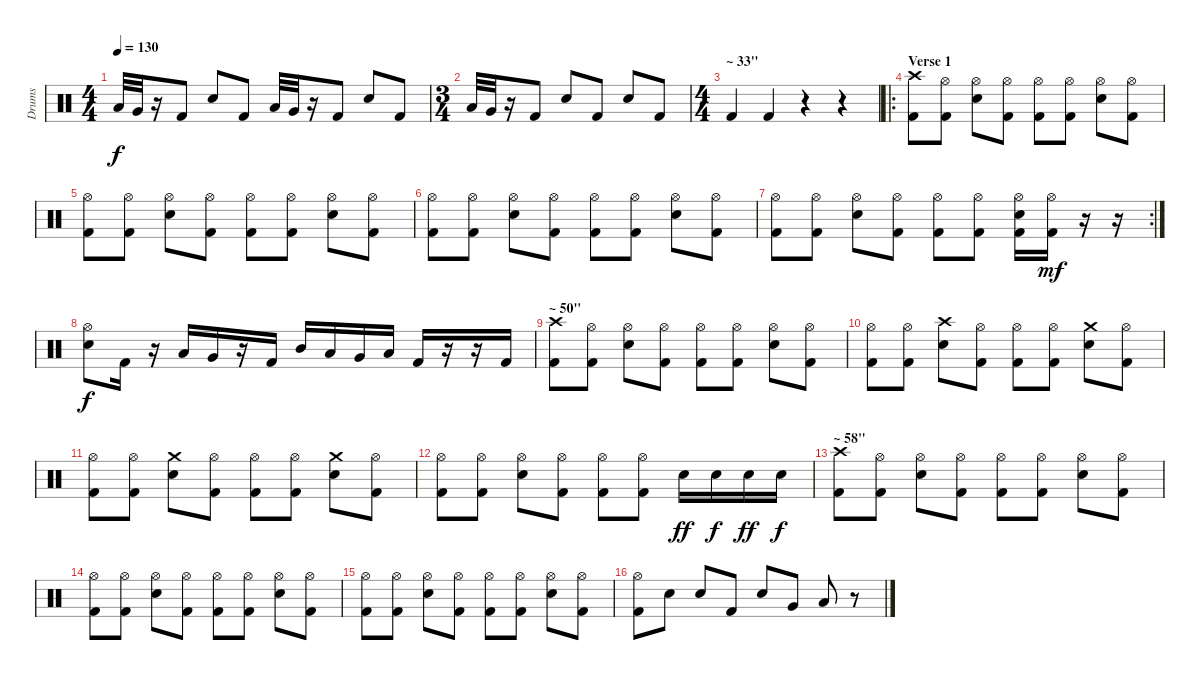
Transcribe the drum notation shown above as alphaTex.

\track ("Drums" "Drums") {instrument percussion}
\staff {score}
\articulation defaults
\ts (4 4)
\tempo 130
\clef neutral
\ks c "Low Tom (hit)".32{dy f} "Very Low Tom (hit)".32
r.16 "Kick (hit) 2".8 "Electric Snare (hit)".8 "Kick (hit) 2".8 "Low Tom (hit)".32 "Very Low Tom (hit)".32 r.16 "Kick (hit) 2".8 "Electric Snare (hit)".8 "Kick (hit) 2".8 |
\ts (3 4)
"Low Tom (hit)".32 "Very Low Tom (hit)".32 r.16 "Kick (hit) 2".8 "Electric Snare (hit)".8 "Kick (hit) 2".8 "Electric Snare (hit)".8 "Kick (hit) 2".8 |
\ts (4 4)
\section ("" "~ 33\"")
"Kick (hit) 2".4 "Kick (hit) 2".4 r.4 r.4 |
\ro
\section ("" "Verse 1")
("Crash high (hit)" "Kick (hit) 2").8 ("Hi-Hat (open)" "Kick (hit) 2").8 ("Hi-Hat (open)" "Electric Snare (hit)").8 ("Hi-Hat (open)" "Kick (hit) 2").8 ("Hi-Hat (open)" "Kick (hit) 2").8 ("Hi-Hat (open)" "Kick (hit) 2").8 ("Hi-Hat (open)" "Electric Snare (hit)").8 ("Hi-Hat (open)" "Kick (hit) 2").8 |
("Hi-Hat (open)" "Kick (hit) 2").8 ("Hi-Hat (open)" "Kick (hit) 2").8 ("Hi-Hat (open)" "Electric Snare (hit)").8 ("Hi-Hat (open)" "Kick (hit) 2").8 ("Hi-Hat (open)" "Kick (hit) 2").8 ("Hi-Hat (open)" "Kick (hit) 2").8 ("Hi-Hat (open)" "Electric Snare (hit)").8 ("Hi-Hat (open)" "Kick (hit) 2").8 |
("Hi-Hat (open)" "Kick (hit) 2").8 ("Hi-Hat (open)" "Kick (hit) 2").8 ("Hi-Hat (open)" "Electric Snare (hit)").8 ("Hi-Hat (open)" "Kick (hit) 2").8 ("Hi-Hat (open)" "Kick (hit) 2").8 ("Hi-Hat (open)" "Kick (hit) 2").8 ("Hi-Hat (open)" "Electric Snare (hit)").8 ("Hi-Hat (open)" "Kick (hit) 2").8 |
\rc 2
("Hi-Hat (open)" "Kick (hit) 2").8 ("Hi-Hat (open)" "Kick (hit) 2").8 ("Hi-Hat (open)" "Electric Snare (hit)").8 ("Hi-Hat (open)" "Kick (hit) 2").8 ("Hi-Hat (open)" "Kick (hit) 2").8 ("Hi-Hat (open)" "Kick (hit) 2").8 ("Hi-Hat (open)" "Electric Snare (hit)" "Kick (hit) 2").16 ("Kick (hit) 2" "Hi-Hat (open)").16{dy mf} r.16 r.16 |
("Electric Snare (hit)" "Hi-Hat (open)").8{dy f} "Kick (hit) 2".16 r.16 "Low Tom (hit)".16 "Very Low Tom (hit)".16 r.16 "Kick (hit) 2".16 "Mid Tom (hit)".16 "Low Tom (hit)".16 "Very Low Tom (hit)".16 "Low Floor Tom (hit)".16 "Kick (hit) 2".16 r.16 r.16 "Kick (hit) 2".16 |
\section ("" "~ 50\"")
("Crash high (hit)" "Kick (hit) 2").8 ("Hi-Hat (open)" "Kick (hit) 2").8 ("Hi-Hat (open)" "Electric Snare (hit)").8 ("Hi-Hat (open)" "Kick (hit) 2").8 ("Hi-Hat (open)" "Kick (hit) 2").8 ("Hi-Hat (open)" "Kick (hit) 2").8 ("Hi-Hat (open)" "Electric Snare (hit)").8 ("Hi-Hat (open)" "Kick (hit) 2").8 |
("Hi-Hat (open)" "Kick (hit) 2").8 ("Hi-Hat (open)" "Kick (hit) 2").8 ("Crash high (hit)" "Electric Snare (hit)").8 ("Hi-Hat (open)" "Kick (hit) 2").8 ("Hi-Hat (open)" "Kick (hit) 2").8 ("Hi-Hat (open)" "Kick (hit) 2").8 ("Crash medium (hit)" "Electric Snare (hit)").8 ("Hi-Hat (open)" "Kick (hit) 2").8 |
("Hi-Hat (open)" "Kick (hit) 2").8 ("Hi-Hat (open)" "Kick (hit) 2").8 ("Crash medium (hit)" "Electric Snare (hit)").8 ("Hi-Hat (open)" "Kick (hit) 2").8 ("Hi-Hat (open)" "Kick (hit) 2").8 ("Hi-Hat (open)" "Kick (hit) 2").8 ("Crash medium (hit)" "Electric Snare (hit)").8 ("Hi-Hat (open)" "Kick (hit) 2").8 |
("Hi-Hat (open)" "Kick (hit) 2").8 ("Hi-Hat (open)" "Kick (hit) 2").8 ("Hi-Hat (open)" "Electric Snare (hit)").8 ("Hi-Hat (open)" "Kick (hit) 2").8 ("Hi-Hat (open)" "Kick (hit) 2").8 ("Hi-Hat (open)" "Kick (hit) 2").8 "Electric Snare (hit)".16{dy ff} "Electric Snare (hit)".16{dy f} "Electric Snare (hit)".16{dy ff} "Electric Snare (hit)".16{dy f} |
\section ("" "~ 58\"")
("Kick (hit) 2" "Crash high (hit)").8 ("Hi-Hat (open)" "Kick (hit) 2").8 ("Hi-Hat (open)" "Electric Snare (hit)").8 ("Hi-Hat (open)" "Kick (hit) 2").8 ("Hi-Hat (open)" "Kick (hit) 2").8 ("Hi-Hat (open)" "Kick (hit) 2").8 ("Hi-Hat (open)" "Electric Snare (hit)").8 ("Hi-Hat (open)" "Kick (hit) 2").8 |
("Hi-Hat (open)" "Kick (hit) 2").8 ("Hi-Hat (open)" "Kick (hit) 2").8 ("Hi-Hat (open)" "Electric Snare (hit)").8 ("Hi-Hat (open)" "Kick (hit) 2").8 ("Hi-Hat (open)" "Kick (hit) 2").8 ("Hi-Hat (open)" "Kick (hit) 2").8 ("Hi-Hat (open)" "Electric Snare (hit)").8 ("Hi-Hat (open)" "Kick (hit) 2").8 |
("Hi-Hat (open)" "Kick (hit) 2").8 ("Hi-Hat (open)" "Kick (hit) 2").8 ("Hi-Hat (open)" "Electric Snare (hit)").8 ("Hi-Hat (open)" "Kick (hit) 2").8 ("Hi-Hat (open)" "Kick (hit) 2").8 ("Hi-Hat (open)" "Kick (hit) 2").8 ("Hi-Hat (open)" "Electric Snare (hit)").8 ("Hi-Hat (open)" "Kick (hit) 2").8 |
("Hi-Hat (open)" "Kick (hit) 2").8 "Electric Snare (hit)".8 "Electric Snare (hit)".8 "Kick (hit) 2".8 "Electric Snare (hit)".8 "Very Low Tom (hit)".8 "Low Floor Tom (hit)".8 r.8
